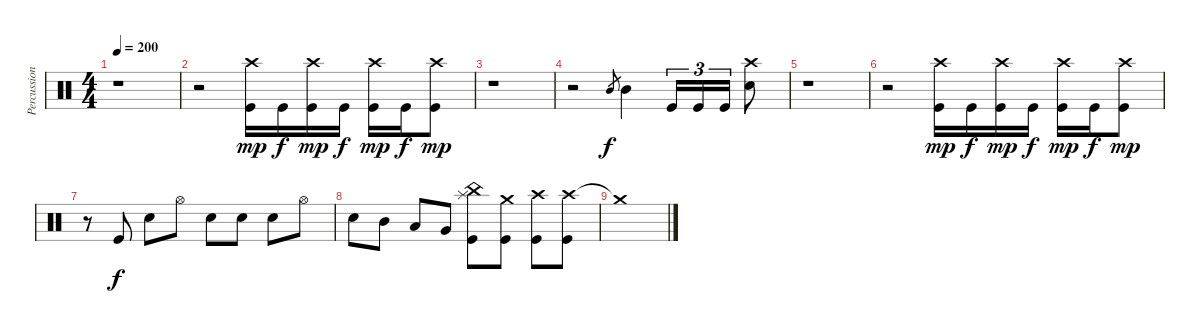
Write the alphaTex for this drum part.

\track ("Percussioni" "Percussion") {instrument percussion}
\staff {score}
\articulation defaults
\ts (4 4)
\tempo 200
\clef neutral
\ks c
r.1{dy f} |
r.2 ("Crash high (hit)" "Kick (hit)").16{dy mp} "Kick (hit)".16{dy f} ("Crash high (hit)" "Kick (hit)").16{dy mp} "Kick (hit)".16{dy f} ("Crash high (hit)" "Kick (hit)").16{dy mp} "Kick (hit)".16{dy f} ("Crash high (hit)" "Kick (hit)").8{dy mp} |
r.1 |
r.2 "Mid Tom (hit)".8{gr dy f} "Mid Tom (hit)".4 "Kick (hit)".16{tu (3 2)} "Kick (hit)".16{tu (3 2)} "Kick (hit)".16{tu (3 2)} ("Crash high (hit)" "Electric Snare (hit)").8 |
r.1 |
r.2 ("Crash high (hit)" "Kick (hit)").16{dy mp} "Kick (hit)".16{dy f} ("Crash high (hit)" "Kick (hit)").16{dy mp} "Kick (hit)".16{dy f} ("Crash high (hit)" "Kick (hit)").16{dy mp} "Kick (hit)".16{dy f} ("Crash high (hit)" "Kick (hit)").8{dy mp} |
r.8 "Kick (hit)".8{dy f} "Electric Snare (hit)".8 "Hi-Hat (open)".8 "Electric Snare (hit)".8 "Electric Snare (hit)".8 "Electric Snare (hit)".8 "Hi-Hat (open)".8 |
"Electric Snare (hit)".8 "Mid Tom (hit)".8 "Low Tom (hit)".8 "Very Low Tom (hit)".8 ("Splash (hit)" "China (hit)" "Kick (hit)").8 ("Crash medium (hit)" "Kick (hit)").8 ("Crash high (hit)" "Kick (hit)").8 ("Crash high (hit)" "Kick (hit)").8 |
"Crash medium (hit)"{t}.1
